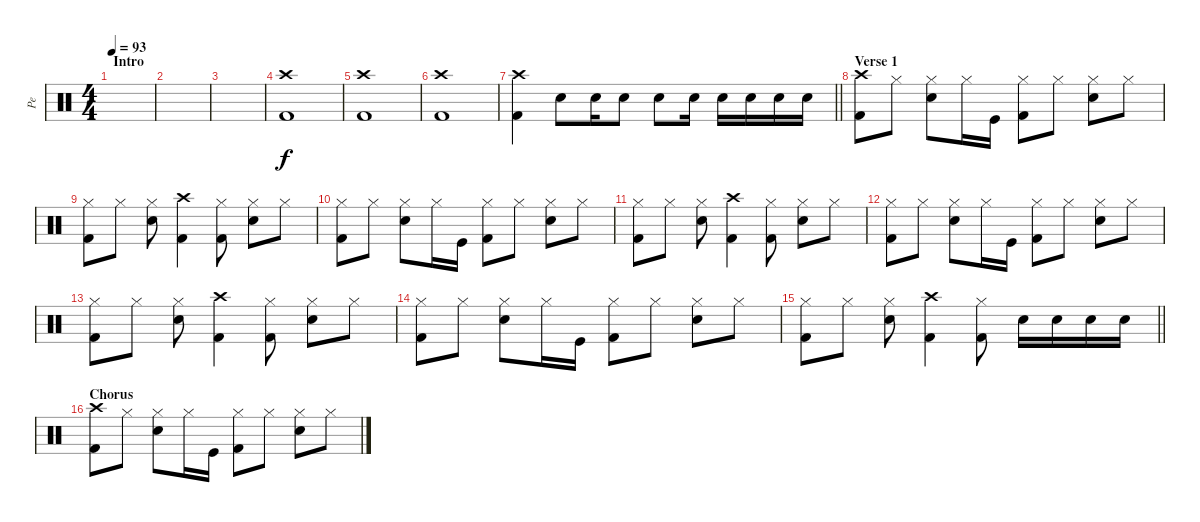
\track ("Pe" "Pe") {instrument percussion}
\staff {score}
\articulation defaults
\ts (4 4)
\section ("" "Intro")
\tempo 93
\clef neutral
\ks c
|
|
|
("Kick (hit) 2" "Crash high (hit)").1 |
("Kick (hit) 2" "Crash high (hit)").1 |
("Kick (hit) 2" "Crash high (hit)").1 |
\barLineRight lightlight
("Kick (hit) 2" "Crash high (hit)").4 "Electric Snare (hit)".8 "Electric Snare (hit)".16 "Electric Snare (hit)".8 "Electric Snare (hit)".8 "Electric Snare (hit)".16 "Electric Snare (hit)".16 "Electric Snare (hit)".16 "Electric Snare (hit)".16 "Electric Snare (hit)".16 |
\section ("" "Verse 1")
("Kick (hit) 2" "Crash high (hit)").8 "Hi-Hat (closed)".8 ("Electric Snare (hit)" "Hi-Hat (closed)").8 "Hi-Hat (closed)".16 "Kick (hit)".16 ("Kick (hit) 2" "Hi-Hat (closed)").8 "Hi-Hat (closed)".8 ("Electric Snare (hit)" "Hi-Hat (closed)").8 "Hi-Hat (closed)".8 |
("Kick (hit) 2" "Hi-Hat (closed)").8 "Hi-Hat (closed)".8 ("Electric Snare (hit)" "Hi-Hat (closed)").8 ("Kick (hit) 2" "Crash high (hit)").4 ("Kick (hit) 2" "Hi-Hat (closed)").8 ("Electric Snare (hit)" "Hi-Hat (closed)").8 "Hi-Hat (closed)".8 |
("Kick (hit) 2" "Hi-Hat (closed)").8 "Hi-Hat (closed)".8 ("Electric Snare (hit)" "Hi-Hat (closed)").8 "Hi-Hat (closed)".16 "Kick (hit)".16 ("Kick (hit) 2" "Hi-Hat (closed)").8 "Hi-Hat (closed)".8 ("Electric Snare (hit)" "Hi-Hat (closed)").8 "Hi-Hat (closed)".8 |
("Kick (hit) 2" "Hi-Hat (closed)").8 "Hi-Hat (closed)".8 ("Electric Snare (hit)" "Hi-Hat (closed)").8 ("Kick (hit) 2" "Crash high (hit)").4 ("Kick (hit) 2" "Hi-Hat (closed)").8 ("Electric Snare (hit)" "Hi-Hat (closed)").8 "Hi-Hat (closed)".8 |
("Kick (hit) 2" "Hi-Hat (closed)").8 "Hi-Hat (closed)".8 ("Electric Snare (hit)" "Hi-Hat (closed)").8 "Hi-Hat (closed)".16 "Kick (hit)".16 ("Kick (hit) 2" "Hi-Hat (closed)").8 "Hi-Hat (closed)".8 ("Electric Snare (hit)" "Hi-Hat (closed)").8 "Hi-Hat (closed)".8 |
("Kick (hit) 2" "Hi-Hat (closed)").8 "Hi-Hat (closed)".8 ("Electric Snare (hit)" "Hi-Hat (closed)").8 ("Kick (hit) 2" "Crash high (hit)").4 ("Kick (hit) 2" "Hi-Hat (closed)").8 ("Electric Snare (hit)" "Hi-Hat (closed)").8 "Hi-Hat (closed)".8 |
("Kick (hit) 2" "Hi-Hat (closed)").8 "Hi-Hat (closed)".8 ("Electric Snare (hit)" "Hi-Hat (closed)").8 "Hi-Hat (closed)".16 "Kick (hit)".16 ("Kick (hit) 2" "Hi-Hat (closed)").8 "Hi-Hat (closed)".8 ("Electric Snare (hit)" "Hi-Hat (closed)").8 "Hi-Hat (closed)".8 |
\barLineRight lightlight
("Kick (hit) 2" "Hi-Hat (closed)").8 "Hi-Hat (closed)".8 ("Electric Snare (hit)" "Hi-Hat (closed)").8 ("Kick (hit) 2" "Crash high (hit)").4 ("Kick (hit) 2" "Hi-Hat (closed)").8 "Electric Snare (hit)".16 "Electric Snare (hit)".16 "Electric Snare (hit)".16 "Electric Snare (hit)".16 |
\section ("" "Chorus")
("Kick (hit) 2" "Crash high (hit)").8 "Hi-Hat (closed)".8 ("Electric Snare (hit)" "Hi-Hat (closed)").8 "Hi-Hat (closed)".16 "Kick (hit)".16 ("Kick (hit) 2" "Hi-Hat (closed)").8 "Hi-Hat (closed)".8 ("Electric Snare (hit)" "Hi-Hat (closed)").8 "Hi-Hat (closed)".8
